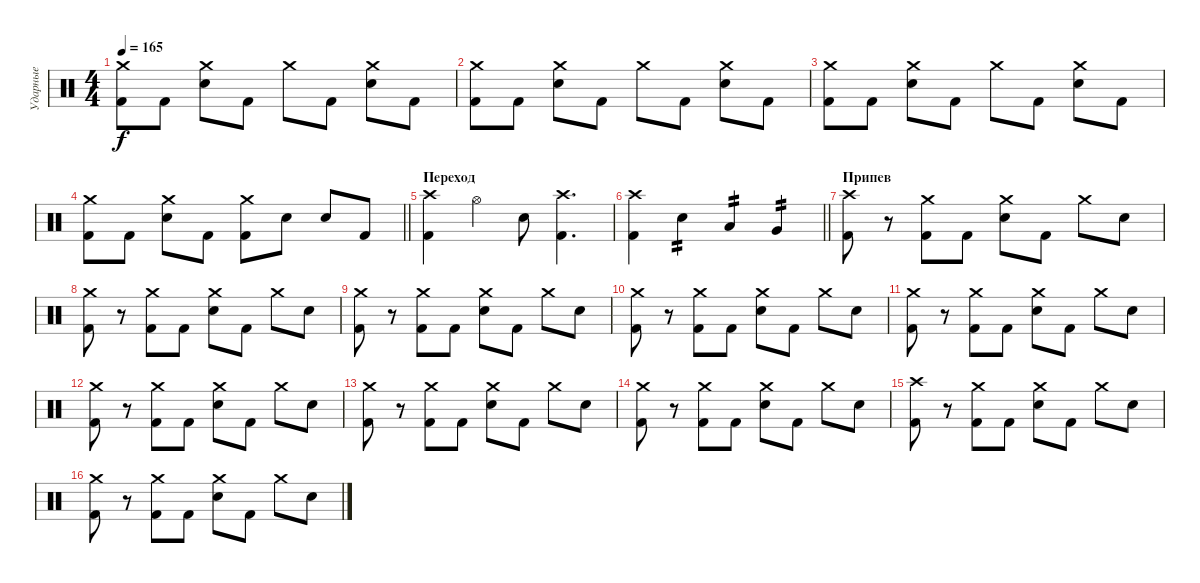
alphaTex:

\track ("Ударные" "Ударные") {instrument percussion}
\staff {score}
\articulation defaults
\ts (4 4)
\tempo 165
\clef neutral
\ks c
("Crash medium (hit)" "Kick (hit) 2").8{dy f} "Kick (hit) 2".8 ("Crash medium (hit)" "Electric Snare (hit)").8 "Kick (hit) 2".8 "Crash medium (hit)".8 "Kick (hit) 2".8 ("Crash medium (hit)" "Electric Snare (hit)").8 "Kick (hit) 2".8 |
("Crash medium (hit)" "Kick (hit) 2").8 "Kick (hit) 2".8 ("Crash medium (hit)" "Electric Snare (hit)").8 "Kick (hit) 2".8 "Crash medium (hit)".8 "Kick (hit) 2".8 ("Crash medium (hit)" "Electric Snare (hit)").8 "Kick (hit) 2".8 |
("Crash medium (hit)" "Kick (hit) 2").8 "Kick (hit) 2".8 ("Crash medium (hit)" "Electric Snare (hit)").8 "Kick (hit) 2".8 "Crash medium (hit)".8 "Kick (hit) 2".8 ("Crash medium (hit)" "Electric Snare (hit)").8 "Kick (hit) 2".8 |
\barLineRight lightlight
("Crash medium (hit)" "Kick (hit) 2").8 "Kick (hit) 2".8 ("Crash medium (hit)" "Electric Snare (hit)").8 "Kick (hit) 2".8 ("Crash medium (hit)" "Kick (hit) 2").8 "Electric Snare (hit)".8 "Electric Snare (hit)".8 "Kick (hit) 2".8 |
\section ("" "Переход")
("Crash high (hit)" "Kick (hit) 2").4 "Hi-Hat (open)".4 "Electric Snare (hit)".8 ("Crash high (hit)" "Kick (hit) 2").4{d} |
\barLineRight lightlight
("Crash high (hit)" "Kick (hit) 2").4 "Electric Snare (hit)".4{tp 2} "Low Tom (hit)".4{tp 2} "Very Low Tom (hit)".4{tp 2} |
\section ("" "Припев")
("Crash high (hit)" "Kick (hit) 2").8 r.8 ("Crash medium (hit)" "Kick (hit) 2").8 "Kick (hit) 2".8 ("Crash medium (hit)" "Electric Snare (hit)").8 "Kick (hit) 2".8 "Crash medium (hit)".8 "Electric Snare (hit)".8 |
("Crash medium (hit)" "Kick (hit) 2").8 r.8 ("Crash medium (hit)" "Kick (hit) 2").8 "Kick (hit) 2".8 ("Crash medium (hit)" "Electric Snare (hit)").8 "Kick (hit) 2".8 "Crash medium (hit)".8 "Electric Snare (hit)".8 |
("Crash medium (hit)" "Kick (hit) 2").8 r.8 ("Crash medium (hit)" "Kick (hit) 2").8 "Kick (hit) 2".8 ("Crash medium (hit)" "Electric Snare (hit)").8 "Kick (hit) 2".8 "Crash medium (hit)".8 "Electric Snare (hit)".8 |
("Crash medium (hit)" "Kick (hit) 2").8 r.8 ("Crash medium (hit)" "Kick (hit) 2").8 "Kick (hit) 2".8 ("Crash medium (hit)" "Electric Snare (hit)").8 "Kick (hit) 2".8 "Crash medium (hit)".8 "Electric Snare (hit)".8 |
("Crash medium (hit)" "Kick (hit) 2").8 r.8 ("Crash medium (hit)" "Kick (hit) 2").8 "Kick (hit) 2".8 ("Crash medium (hit)" "Electric Snare (hit)").8 "Kick (hit) 2".8 "Crash medium (hit)".8 "Electric Snare (hit)".8 |
("Crash medium (hit)" "Kick (hit) 2").8 r.8 ("Crash medium (hit)" "Kick (hit) 2").8 "Kick (hit) 2".8 ("Crash medium (hit)" "Electric Snare (hit)").8 "Kick (hit) 2".8 "Crash medium (hit)".8 "Electric Snare (hit)".8 |
("Crash medium (hit)" "Kick (hit) 2").8 r.8 ("Crash medium (hit)" "Kick (hit) 2").8 "Kick (hit) 2".8 ("Crash medium (hit)" "Electric Snare (hit)").8 "Kick (hit) 2".8 "Crash medium (hit)".8 "Electric Snare (hit)".8 |
("Crash medium (hit)" "Kick (hit) 2").8 r.8 ("Crash medium (hit)" "Kick (hit) 2").8 "Kick (hit) 2".8 ("Crash medium (hit)" "Electric Snare (hit)").8 "Kick (hit) 2".8 "Crash medium (hit)".8 "Electric Snare (hit)".8 |
("Crash high (hit)" "Kick (hit) 2").8 r.8 ("Crash medium (hit)" "Kick (hit) 2").8 "Kick (hit) 2".8 ("Crash medium (hit)" "Electric Snare (hit)").8 "Kick (hit) 2".8 "Crash medium (hit)".8 "Electric Snare (hit)".8 |
("Crash medium (hit)" "Kick (hit) 2").8 r.8 ("Crash medium (hit)" "Kick (hit) 2").8 "Kick (hit) 2".8 ("Crash medium (hit)" "Electric Snare (hit)").8 "Kick (hit) 2".8 "Crash medium (hit)".8 "Electric Snare (hit)".8
